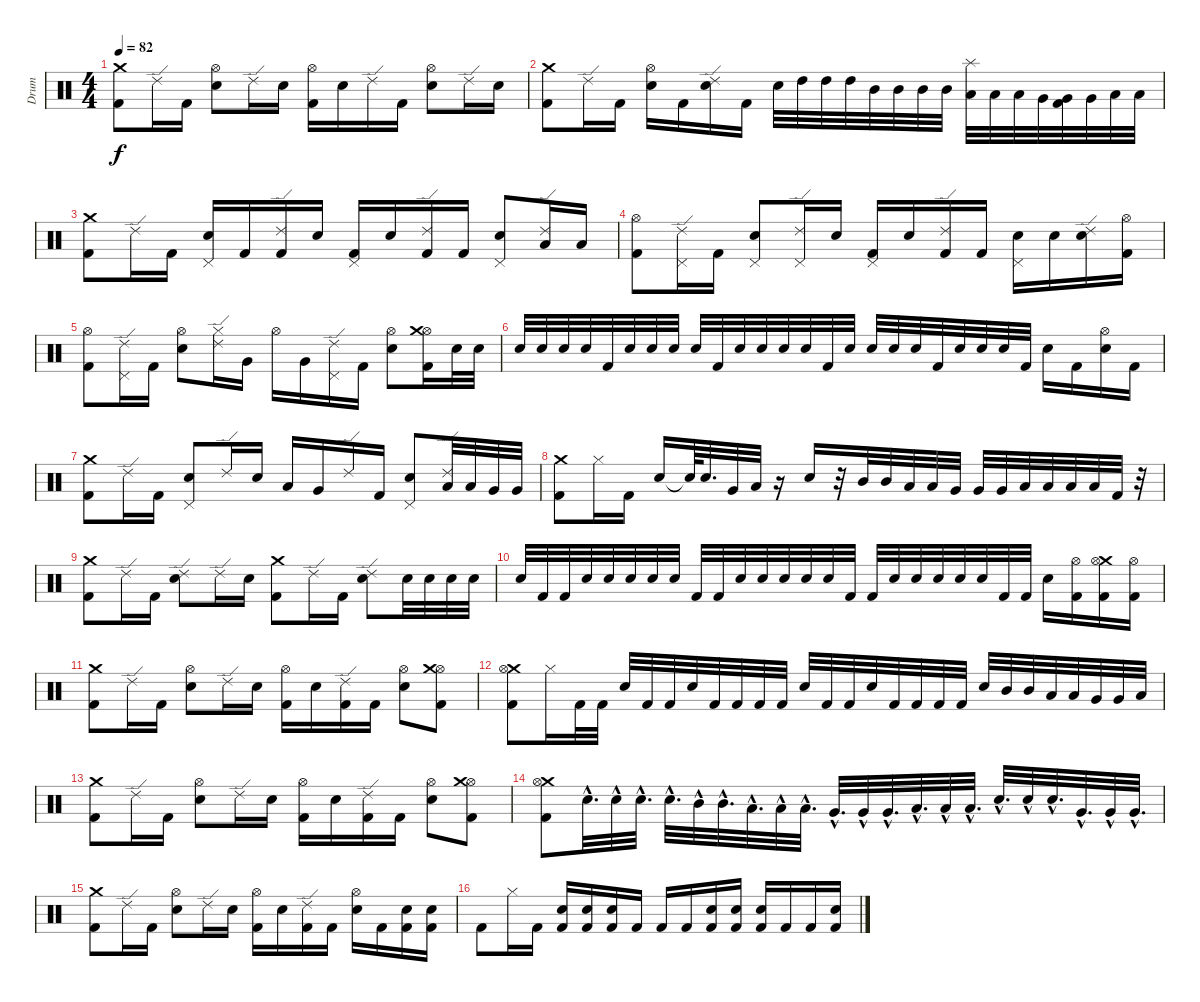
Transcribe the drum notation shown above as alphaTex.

\track ("Drum" "Drum") {instrument percussion}
\staff {score}
\articulation defaults
\ts (4 4)
\tempo 82
\clef neutral
\ks c
("Crash medium (hit)" "Kick (hit) 2").8{dy f} "Ride (edge) 2".16 "Kick (hit) 2".16 ("Hi-Hat (open)" "Electric Snare (hit)").8 "Ride (edge) 2".16 "Electric Snare (hit)".16 ("Hi-Hat (open)" "Kick (hit) 2").16 "Electric Snare (hit)".16 "Ride (edge) 2".16 "Kick (hit) 2".16 ("Hi-Hat (open)" "Electric Snare (hit)").8 "Ride (edge) 2".16 "Electric Snare (hit)".16 |
("Crash medium (hit)" "Kick (hit) 2").8 "Ride (edge) 2".16 "Kick (hit) 2".16 ("Hi-Hat (open)" "Electric Snare (hit)").16 "Kick (hit) 2".16 ("Ride (edge) 2" "Electric Snare (hit)").16 "Kick (hit) 2".16 "Electric Snare (hit)".32 "High Tom (hit)".32 "High Tom (hit)".32 "High Tom (hit)".32 "Mid Tom (hit)".32 "Mid Tom (hit)".32 "Mid Tom (hit)".32 "Mid Tom (hit)".32 ("Splash (hit)" "Low Tom (hit)").32 "Low Tom (hit)".32 "Low Tom (hit)".32 "Very Low Tom (hit)".32 ("Kick (hit) 2" "Very Low Tom (hit)").32 "Very Low Tom (hit)".32 "Low Floor Tom (hit)".32 "Low Floor Tom (hit)".32 |
("Crash medium (hit)" "Kick (hit) 2").8 "Ride (edge) 2".16 "Kick (hit) 2".16 ("Pedal Hi-Hat (hit)" "Electric Snare (hit)").16 "Kick (hit) 2".16 ("Ride (edge) 2" "Kick (hit) 2").16 "Electric Snare (hit)".16 ("Pedal Hi-Hat (hit)" "Kick (hit) 2").16 "Electric Snare (hit)".16 ("Ride (edge) 2" "Kick (hit) 2").16 "Kick (hit) 2".16 ("Pedal Hi-Hat (hit)" "Electric Snare (hit)").8 ("Ride (edge) 2" "Low Tom (hit)").16 "Low Tom (hit)".16 |
("Hi-Hat (open)" "Kick (hit) 2").8 ("Ride (edge) 2" "Pedal Hi-Hat (hit)").16 "Kick (hit) 2".16 ("Pedal Hi-Hat (hit)" "Electric Snare (hit)").8 ("Ride (edge) 2" "Pedal Hi-Hat (hit)").16 "Electric Snare (hit)".16 ("Pedal Hi-Hat (hit)" "Kick (hit) 2").16 "Electric Snare (hit)".16 ("Ride (edge) 2" "Kick (hit) 2").16 "Kick (hit) 2".16 ("Pedal Hi-Hat (hit)" "Electric Snare (hit)").16 "Electric Snare (hit)".16 ("Ride (edge) 2" "Electric Snare (hit)").16 ("Hi-Hat (open)" "Kick (hit) 2").16 |
("Hi-Hat (open)" "Kick (hit) 2").8 ("Ride (edge) 2" "Pedal Hi-Hat (hit)").16 "Kick (hit) 2".16 ("Hi-Hat (open)" "Electric Snare (hit)").8 ("Ride (edge) 2" "Hi-Hat (closed)").16 "Very Low Tom (hit)".16 "Hi-Hat (open)".16 "Very Low Tom (hit)".16 ("Ride (edge) 2" "Pedal Hi-Hat (hit)").16 "Kick (hit) 2".16 ("Hi-Hat (open)" "Electric Snare (hit)").8 ("Hi-Hat (open)" "Crash medium (hit)" "Kick (hit) 2").16 "Electric Snare (hit)".32 "Electric Snare (hit)".32 |
"Electric Snare (hit)".32 "Electric Snare (hit)".32 "Electric Snare (hit)".32 "Electric Snare (hit)".32 "Kick (hit) 2".32 "Electric Snare (hit)".32 "Electric Snare (hit)".32 "Electric Snare (hit)".32 "Electric Snare (hit)".32 "Kick (hit) 2".32 "Electric Snare (hit)".32 "Electric Snare (hit)".32 "Electric Snare (hit)".32 "Electric Snare (hit)".32 "Kick (hit) 2".32 "Electric Snare (hit)".32 "Electric Snare (hit)".32 "Electric Snare (hit)".32 "Electric Snare (hit)".32 "Kick (hit) 2".32 "Electric Snare (hit)".32 "Electric Snare (hit)".32 "Electric Snare (hit)".32 "Kick (hit) 2".32 "Electric Snare (hit)".16 "Kick (hit) 2".16 ("Hi-Hat (open)" "Electric Snare (hit)").16 "Kick (hit) 2".16 |
("Crash medium (hit)" "Kick (hit) 2").8 "Ride (edge) 2".16 "Kick (hit) 2".16 ("Pedal Hi-Hat (hit)" "Electric Snare (hit)").8 "Ride (edge) 2".16 "Electric Snare (hit)".16 "Low Tom (hit)".16 "Very Low Tom (hit)".16 "Ride (edge) 2".16 "Kick (hit) 2".16 ("Pedal Hi-Hat (hit)" "Electric Snare (hit)").8 ("Ride (edge) 2" "Low Tom (hit)").32 "Low Tom (hit)".32 "Very Low Tom (hit)".32 "Very Low Tom (hit)".32 |
("Crash medium (hit)" "Kick (hit) 2").8 "Hi-Hat (closed)".16 "Kick (hit) 2".16 "Electric Snare (hit)".16 "Snare (hit)"{t}.64 "Electric Snare (hit)".32{d} "Very Low Tom (hit)".32 "Low Floor Tom (hit)".32 r.16 "Electric Snare (hit)".16 r.32 "Mid Tom (hit)".32 "Mid Tom (hit)".32 "Low Tom (hit)".32 "Low Tom (hit)".32 "Very Low Tom (hit)".32 "Very Low Tom (hit)".32 "Very Low Tom (hit)".32 "Low Floor Tom (hit)".32 "Low Floor Tom (hit)".32 "Low Floor Tom (hit)".32 "Low Floor Tom (hit)".32 "Kick (hit) 2".32 r.32 |
("Crash medium (hit)" "Kick (hit) 2").8 "Ride (edge) 2".16 "Kick (hit) 2".16 ("Electric Snare (hit)" "Ride (edge) 2").8 "Ride (edge) 2".16 "Electric Snare (hit)".16 ("Crash medium (hit)" "Kick (hit) 2").8 "Ride (edge) 2".16 "Kick (hit) 2".16 ("Electric Snare (hit)" "Ride (edge) 2").8 "Electric Snare (hit)".32 "Electric Snare (hit)".32 "Electric Snare (hit)".32 "Electric Snare (hit)".32 |
"Electric Snare (hit)".32 "Kick (hit) 2".32 "Kick (hit) 2".32 "Electric Snare (hit)".32 "Electric Snare (hit)".32 "Electric Snare (hit)".32 "Electric Snare (hit)".32 "Electric Snare (hit)".32 "Kick (hit) 2".32 "Kick (hit) 2".32 "Electric Snare (hit)".32 "Electric Snare (hit)".32 "Electric Snare (hit)".32 "Electric Snare (hit)".32 "Electric Snare (hit)".32 "Kick (hit) 2".32 "Kick (hit) 2".32 "Electric Snare (hit)".32 "Electric Snare (hit)".32 "Electric Snare (hit)".32 "Electric Snare (hit)".32 "Electric Snare (hit)".32 "Kick (hit) 2".32 "Kick (hit) 2".32 "Electric Snare (hit)".16 ("Hi-Hat (open)" "Kick (hit) 2").16 ("Crash medium (hit)" "Hi-Hat (open)" "Kick (hit) 2").16 ("Hi-Hat (open)" "Kick (hit) 2").16 |
("Crash medium (hit)" "Kick (hit) 2").8 "Ride (edge) 2".16 "Kick (hit) 2".16 ("Hi-Hat (open)" "Electric Snare (hit)").8 "Ride (edge) 2".16 "Electric Snare (hit)".16 ("Hi-Hat (open)" "Kick (hit) 2").16 "Electric Snare (hit)".16 ("Ride (edge) 2" "Kick (hit) 2").16 "Kick (hit) 2".16 ("Hi-Hat (open)" "Electric Snare (hit)").8 ("Hi-Hat (open)" "Kick (hit) 2" "Crash medium (hit)").8 |
("Crash medium (hit)" "Hi-Hat (open)" "Kick (hit) 2").8 "Hi-Hat (closed)".16 "Kick (hit) 2".32 "Kick (hit) 2".32 "Electric Snare (hit)".32 "Kick (hit) 2".32 "Kick (hit) 2".32 "Electric Snare (hit)".32 "Kick (hit) 2".32 "Kick (hit) 2".32 "Kick (hit) 2".32 "Kick (hit) 2".32 "Electric Snare (hit)".32 "Kick (hit) 2".32 "Kick (hit) 2".32 "Electric Snare (hit)".32 "Kick (hit) 2".32 "Kick (hit) 2".32 "Kick (hit) 2".32 "Kick (hit) 2".32 "Electric Snare (hit)".32 "Mid Tom (hit)".32 "Mid Tom (hit)".32 "Low Tom (hit)".32 "Low Tom (hit)".32 "Very Low Tom (hit)".32 "Very Low Tom (hit)".32 "Low Floor Tom (hit)".32 |
("Crash medium (hit)" "Kick (hit) 2").8 "Ride (edge) 2".16 "Kick (hit) 2".16 ("Hi-Hat (open)" "Electric Snare (hit)").8 "Ride (edge) 2".16 "Electric Snare (hit)".16 ("Hi-Hat (open)" "Kick (hit) 2").16 "Electric Snare (hit)".16 ("Ride (edge) 2" "Kick (hit) 2").16 "Kick (hit) 2".16 ("Hi-Hat (open)" "Electric Snare (hit)").8 ("Hi-Hat (open)" "Kick (hit) 2" "Crash medium (hit)").8 |
("Crash medium (hit)" "Hi-Hat (open)" "Kick (hit) 2").8 "Electric Snare (hit)"{hac}.32{d} "Electric Snare (hit)"{hac}.32 "Electric Snare (hit)"{hac}.32{d} "Electric Snare (hit)"{hac}.32{d} "Mid Tom (hit)"{hac}.32 "Mid Tom (hit)"{hac}.32{d} "Low Tom (hit)"{hac}.32{d} "Low Tom (hit)"{hac}.32 "Low Tom (hit)"{hac}.32{d} "Very Low Tom (hit)"{hac}.32{d} "Very Low Tom (hit)"{hac}.32 "Very Low Tom (hit)"{hac}.32{d} "Low Floor Tom (hit)"{hac}.32{d} "Low Floor Tom (hit)"{hac}.32 "Low Floor Tom (hit)"{hac}.32{d} "Electric Snare (hit)"{hac}.32{d} "Electric Snare (hit)"{hac}.32 "Electric Snare (hit)"{hac}.32{d} "Very Low Tom (hit)"{hac}.32{d} "Very Low Tom (hit)"{hac}.32 "Very Low Tom (hit)"{hac}.32{d} |
("Crash medium (hit)" "Kick (hit) 2").8 "Ride (edge) 2".16 "Kick (hit) 2".16 ("Hi-Hat (open)" "Electric Snare (hit)").8 "Ride (edge) 2".16 "Electric Snare (hit)".16 ("Hi-Hat (open)" "Kick (hit) 2").16 "Electric Snare (hit)".16 ("Ride (edge) 2" "Kick (hit) 2").16 "Kick (hit) 2".16 ("Hi-Hat (open)" "Electric Snare (hit)").16 "Kick (hit) 2".16 ("Kick (hit) 2" "Electric Snare (hit)").16 ("Kick (hit) 2" "Electric Snare (hit)").16 |
"Kick (hit) 2".8 "Hi-Hat (closed)".16 "Kick (hit) 2".16 ("Electric Snare (hit)" "Kick (hit) 2").16 ("Electric Snare (hit)" "Kick (hit) 2").16 ("Electric Snare (hit)" "Kick (hit) 2").16 "Kick (hit) 2".16 "Kick (hit) 2".16 "Kick (hit) 2".16 ("Electric Snare (hit)" "Kick (hit) 2").16 ("Electric Snare (hit)" "Kick (hit) 2").16 ("Electric Snare (hit)" "Kick (hit) 2").16 "Kick (hit) 2".16 "Kick (hit) 2".16 ("Electric Snare (hit)" "Kick (hit) 2").16
